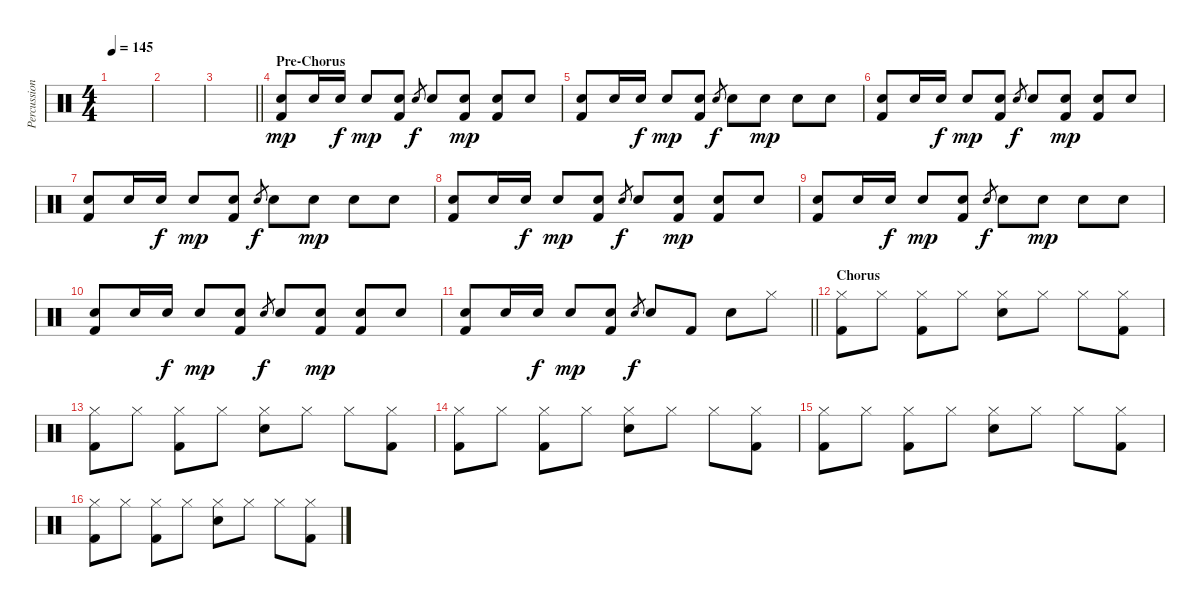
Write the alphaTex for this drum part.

\track ("Percussion" "Percussion") {instrument percussion}
\staff {score}
\articulation defaults
\ts (4 4)
\tempo 145
\clef neutral
\ks c
|
|
\barLineRight lightlight
|
\section ("" "Pre-Chorus")
("Electric Snare (hit)" "Kick (hit) 2").8{dy mp} "Electric Snare (hit)".16 "Electric Snare (hit)".16{dy f} "Electric Snare (hit)".8{dy mp} ("Electric Snare (hit)" "Kick (hit) 2").8 "Electric Snare (hit)".8{gr dy f} "Electric Snare (hit)".8 ("Electric Snare (hit)" "Kick (hit) 2").8{dy mp} ("Electric Snare (hit)" "Kick (hit) 2").8 "Electric Snare (hit)".8 |
("Electric Snare (hit)" "Kick (hit) 2").8 "Electric Snare (hit)".16 "Electric Snare (hit)".16{dy f} "Electric Snare (hit)".8{dy mp} ("Electric Snare (hit)" "Kick (hit) 2").8 "Electric Snare (hit)".8{gr dy f} "Electric Snare (hit)".8 "Electric Snare (hit)".8{dy mp} "Electric Snare (hit)".8 "Electric Snare (hit)".8 |
("Electric Snare (hit)" "Kick (hit) 2").8 "Electric Snare (hit)".16 "Electric Snare (hit)".16{dy f} "Electric Snare (hit)".8{dy mp} ("Electric Snare (hit)" "Kick (hit) 2").8 "Electric Snare (hit)".8{gr dy f} "Electric Snare (hit)".8 ("Electric Snare (hit)" "Kick (hit) 2").8{dy mp} ("Electric Snare (hit)" "Kick (hit) 2").8 "Electric Snare (hit)".8 |
("Electric Snare (hit)" "Kick (hit) 2").8 "Electric Snare (hit)".16 "Electric Snare (hit)".16{dy f} "Electric Snare (hit)".8{dy mp} ("Electric Snare (hit)" "Kick (hit) 2").8 "Electric Snare (hit)".8{gr dy f} "Electric Snare (hit)".8 "Electric Snare (hit)".8{dy mp} "Electric Snare (hit)".8 "Electric Snare (hit)".8 |
("Electric Snare (hit)" "Kick (hit) 2").8 "Electric Snare (hit)".16 "Electric Snare (hit)".16{dy f} "Electric Snare (hit)".8{dy mp} ("Electric Snare (hit)" "Kick (hit) 2").8 "Electric Snare (hit)".8{gr dy f} "Electric Snare (hit)".8 ("Electric Snare (hit)" "Kick (hit) 2").8{dy mp} ("Electric Snare (hit)" "Kick (hit) 2").8 "Electric Snare (hit)".8 |
("Electric Snare (hit)" "Kick (hit) 2").8 "Electric Snare (hit)".16 "Electric Snare (hit)".16{dy f} "Electric Snare (hit)".8{dy mp} ("Electric Snare (hit)" "Kick (hit) 2").8 "Electric Snare (hit)".8{gr dy f} "Electric Snare (hit)".8 "Electric Snare (hit)".8{dy mp} "Electric Snare (hit)".8 "Electric Snare (hit)".8 |
("Electric Snare (hit)" "Kick (hit) 2").8 "Electric Snare (hit)".16 "Electric Snare (hit)".16{dy f} "Electric Snare (hit)".8{dy mp} ("Electric Snare (hit)" "Kick (hit) 2").8 "Electric Snare (hit)".8{gr dy f} "Electric Snare (hit)".8 ("Electric Snare (hit)" "Kick (hit) 2").8{dy mp} ("Electric Snare (hit)" "Kick (hit) 2").8 "Electric Snare (hit)".8 |
\barLineRight lightlight
("Electric Snare (hit)" "Kick (hit) 2").8 "Electric Snare (hit)".16 "Electric Snare (hit)".16{dy f} "Electric Snare (hit)".8{dy mp} ("Electric Snare (hit)" "Kick (hit) 2").8 "Electric Snare (hit)".8{gr dy f} "Electric Snare (hit)".8 "Kick (hit) 2".8 "Electric Snare (hit)".8 "Hi-Hat (closed)".8 |
\section ("" "Chorus")
("Hi-Hat (closed)" "Kick (hit) 2").8 "Hi-Hat (closed)".8 ("Hi-Hat (closed)" "Kick (hit) 2").8 "Hi-Hat (closed)".8 ("Hi-Hat (closed)" "Electric Snare (hit)").8 "Hi-Hat (closed)".8 "Hi-Hat (closed)".8 ("Hi-Hat (closed)" "Kick (hit) 2").8 |
("Hi-Hat (closed)" "Kick (hit) 2").8 "Hi-Hat (closed)".8 ("Hi-Hat (closed)" "Kick (hit) 2").8 "Hi-Hat (closed)".8 ("Hi-Hat (closed)" "Electric Snare (hit)").8 "Hi-Hat (closed)".8 "Hi-Hat (closed)".8 ("Hi-Hat (closed)" "Kick (hit) 2").8 |
("Hi-Hat (closed)" "Kick (hit) 2").8 "Hi-Hat (closed)".8 ("Hi-Hat (closed)" "Kick (hit) 2").8 "Hi-Hat (closed)".8 ("Hi-Hat (closed)" "Electric Snare (hit)").8 "Hi-Hat (closed)".8 "Hi-Hat (closed)".8 ("Hi-Hat (closed)" "Kick (hit) 2").8 |
("Hi-Hat (closed)" "Kick (hit) 2").8 "Hi-Hat (closed)".8 ("Hi-Hat (closed)" "Kick (hit) 2").8 "Hi-Hat (closed)".8 ("Hi-Hat (closed)" "Electric Snare (hit)").8 "Hi-Hat (closed)".8 "Hi-Hat (closed)".8 ("Hi-Hat (closed)" "Kick (hit) 2").8 |
("Hi-Hat (closed)" "Kick (hit) 2").8 "Hi-Hat (closed)".8 ("Hi-Hat (closed)" "Kick (hit) 2").8 "Hi-Hat (closed)".8 ("Hi-Hat (closed)" "Electric Snare (hit)").8 "Hi-Hat (closed)".8 "Hi-Hat (closed)".8 ("Hi-Hat (closed)" "Kick (hit) 2").8
